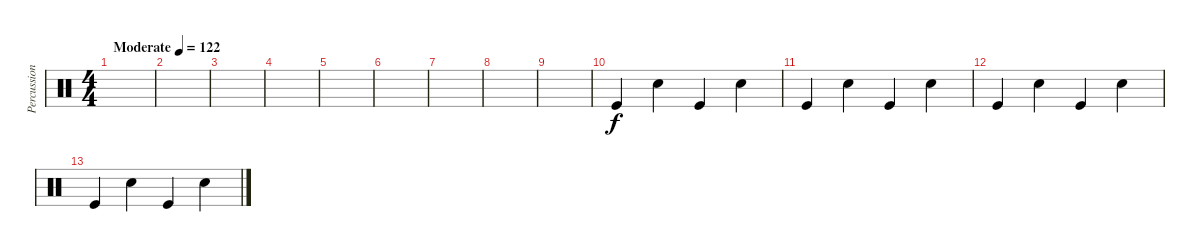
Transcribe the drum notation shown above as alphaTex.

\track ("Percussion" "Percussion") {instrument percussion}
\staff {score}
\articulation defaults
\ts (4 4)
\tempo (122 "Moderate")
\clef neutral
\ks c
|
|
|
|
|
|
|
|
|
"Kick (hit)".4 "Snare (hit) 2".4 "Kick (hit)".4 "Snare (hit) 2".4 |
"Kick (hit)".4 "Snare (hit) 2".4 "Kick (hit)".4 "Snare (hit) 2".4 |
"Kick (hit)".4 "Snare (hit) 2".4 "Kick (hit)".4 "Snare (hit) 2".4 |
"Kick (hit)".4 "Snare (hit) 2".4 "Kick (hit)".4 "Snare (hit) 2".4
